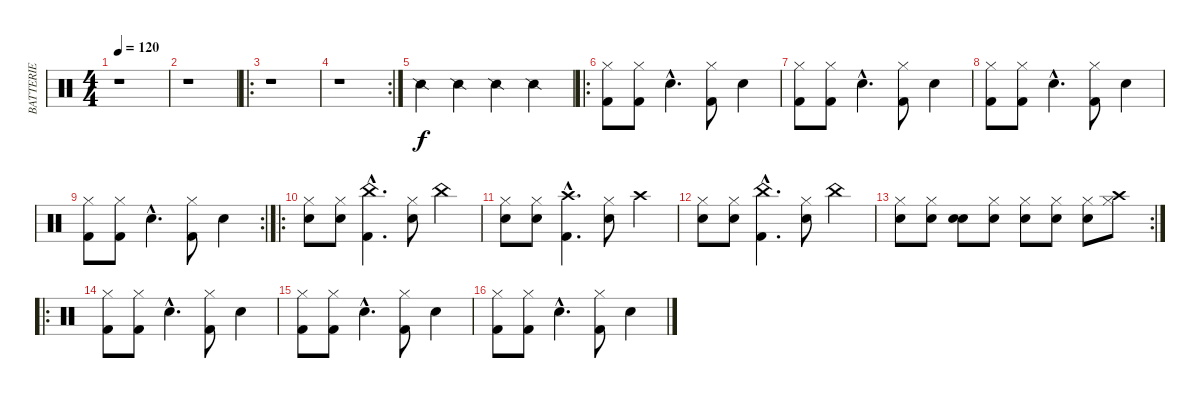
\track ("BATTERIE" "BATTERIE") {instrument percussion}
\staff {score}
\articulation defaults
\ts (4 4)
\tempo 120
\clef neutral
\ks c
r.1{dy f} |
r.1 |
\ro
r.1 |
\rc 2
r.1 |
"Snare (side stick) 2".4 "Snare (side stick) 2".4 "Snare (side stick) 2".4 "Snare (side stick) 2".4 |
\ro
("Kick (hit) 2" "Hi-Hat (closed)").8 ("Kick (hit) 2" "Hi-Hat (closed)").8 "Electric Snare (hit)"{hac}.4{d} ("Kick (hit) 2" "Hi-Hat (closed)").8 "Electric Snare (hit)".4 |
("Kick (hit) 2" "Hi-Hat (closed)").8 ("Kick (hit) 2" "Hi-Hat (closed)").8 "Electric Snare (hit)"{hac}.4{d} ("Kick (hit) 2" "Hi-Hat (closed)").8 "Electric Snare (hit)".4 |
("Kick (hit) 2" "Hi-Hat (closed)").8 ("Kick (hit) 2" "Hi-Hat (closed)").8 "Electric Snare (hit)"{hac}.4{d} ("Kick (hit) 2" "Hi-Hat (closed)").8 "Electric Snare (hit)".4 |
\rc 2
("Kick (hit) 2" "Hi-Hat (closed)").8 ("Kick (hit) 2" "Hi-Hat (closed)").8 "Electric Snare (hit)"{hac}.4{d} ("Kick (hit) 2" "Hi-Hat (closed)").8 "Electric Snare (hit)".4 |
\ro
("Electric Snare (hit)" "Hi-Hat (closed)").8 ("Electric Snare (hit)" "Hi-Hat (closed)").8 ("China (hit)"{hac} "Kick (hit) 2"{hac}).4{d} ("Electric Snare (hit)" "Hi-Hat (closed)").8 "China (hit)".4 |
("Electric Snare (hit)" "Hi-Hat (closed)").8 ("Electric Snare (hit)" "Hi-Hat (closed)").8 ("Crash high (hit)"{hac} "Kick (hit) 2"{hac}).4{d} ("Electric Snare (hit)" "Hi-Hat (closed)").8 "Crash high (hit)".4 |
("Electric Snare (hit)" "Hi-Hat (closed)").8 ("Electric Snare (hit)" "Hi-Hat (closed)").8 ("China (hit)"{hac} "Kick (hit) 2"{hac}).4{d} ("Electric Snare (hit)" "Hi-Hat (closed)").8 "China (hit)".4 |
\rc 2
("Electric Snare (hit)" "Hi-Hat (closed)").8 ("Electric Snare (hit)" "Hi-Hat (closed)").8 ("Electric Snare (hit)" "Snare (hit)").8 ("Electric Snare (hit)" "Hi-Hat (closed)").8 ("Electric Snare (hit)" "Hi-Hat (closed)").8 ("Electric Snare (hit)" "Hi-Hat (closed)").8 ("Electric Snare (hit)" "Hi-Hat (closed)").8 ("Crash high (hit)" "Hi-Hat (closed)").8 |
\ro
("Kick (hit) 2" "Hi-Hat (closed)").8 ("Kick (hit) 2" "Hi-Hat (closed)").8 "Electric Snare (hit)"{hac}.4{d} ("Kick (hit) 2" "Hi-Hat (closed)").8 "Electric Snare (hit)".4 |
("Kick (hit) 2" "Hi-Hat (closed)").8 ("Kick (hit) 2" "Hi-Hat (closed)").8 "Electric Snare (hit)"{hac}.4{d} ("Kick (hit) 2" "Hi-Hat (closed)").8 "Electric Snare (hit)".4 |
("Kick (hit) 2" "Hi-Hat (closed)").8 ("Kick (hit) 2" "Hi-Hat (closed)").8 "Electric Snare (hit)"{hac}.4{d} ("Kick (hit) 2" "Hi-Hat (closed)").8 "Electric Snare (hit)".4
